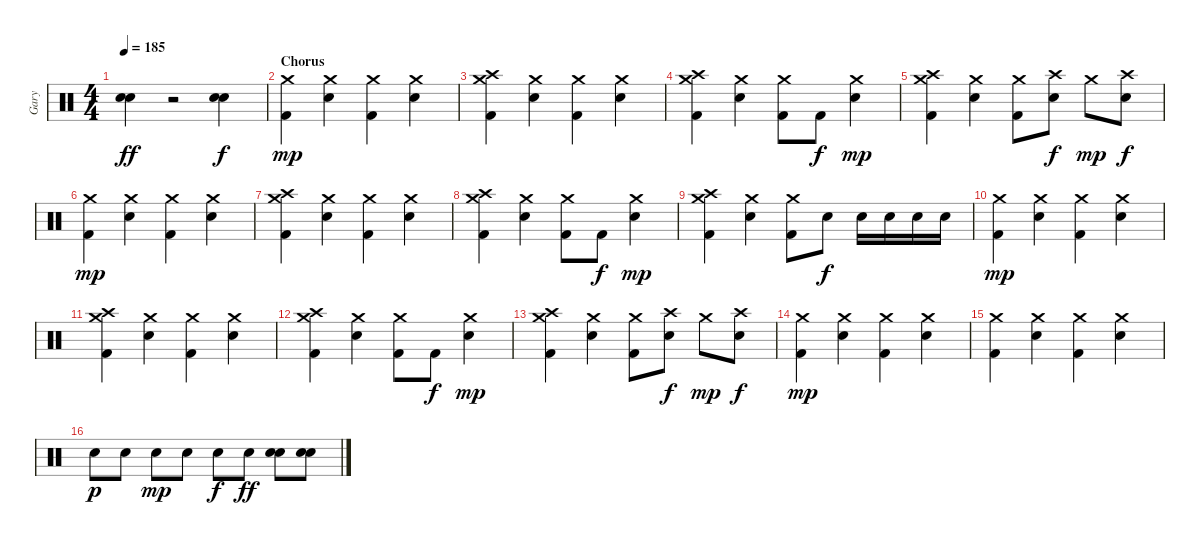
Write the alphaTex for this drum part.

\track ("Gary" "Gary") {instrument percussion}
\staff {score}
\articulation defaults
\ts (4 4)
\tempo 185
\clef neutral
\ks c
("Electric Snare (hit)" "Electric Snare (hit)").4{dy ff} r.2 ("Electric Snare (hit)" "Electric Snare (hit)").4{dy f} |
\section ("" "Chorus")
("Kick (hit) 2" "Crash medium (hit)").4{dy mp} ("Electric Snare (hit)" "Crash medium (hit)").4 ("Kick (hit) 2" "Crash medium (hit)").4 ("Electric Snare (hit)" "Crash medium (hit)").4 |
("Crash high (hit)" "Kick (hit) 2" "Crash medium (hit)").4 ("Electric Snare (hit)" "Crash medium (hit)").4 ("Kick (hit) 2" "Crash medium (hit)").4 ("Electric Snare (hit)" "Crash medium (hit)").4 |
("Crash high (hit)" "Kick (hit) 2" "Crash medium (hit)").4 ("Electric Snare (hit)" "Crash medium (hit)").4 ("Kick (hit) 2" "Crash medium (hit)").8 "Kick (hit) 2".8{dy f} ("Electric Snare (hit)" "Crash medium (hit)").4{dy mp} |
("Crash high (hit)" "Kick (hit) 2" "Crash medium (hit)").4 ("Electric Snare (hit)" "Crash medium (hit)").4 ("Kick (hit) 2" "Crash medium (hit)").8 ("Crash high (hit)" "Electric Snare (hit)").8{dy f} "Crash medium (hit)".8{dy mp} ("Crash high (hit)" "Electric Snare (hit)").8{dy f} |
("Kick (hit) 2" "Crash medium (hit)").4{dy mp} ("Electric Snare (hit)" "Crash medium (hit)").4 ("Kick (hit) 2" "Crash medium (hit)").4 ("Electric Snare (hit)" "Crash medium (hit)").4 |
("Crash high (hit)" "Kick (hit) 2" "Crash medium (hit)").4 ("Electric Snare (hit)" "Crash medium (hit)").4 ("Kick (hit) 2" "Crash medium (hit)").4 ("Electric Snare (hit)" "Crash medium (hit)").4 |
("Crash high (hit)" "Kick (hit) 2" "Crash medium (hit)").4 ("Electric Snare (hit)" "Crash medium (hit)").4 ("Kick (hit) 2" "Crash medium (hit)").8 "Kick (hit) 2".8{dy f} ("Electric Snare (hit)" "Crash medium (hit)").4{dy mp} |
("Crash high (hit)" "Kick (hit) 2" "Crash medium (hit)").4 ("Electric Snare (hit)" "Crash medium (hit)").4 ("Kick (hit) 2" "Crash medium (hit)").8 "Electric Snare (hit)".8{dy f} "Electric Snare (hit)".16 "Electric Snare (hit)".16 "Electric Snare (hit)".16 "Electric Snare (hit)".16 |
("Kick (hit) 2" "Crash medium (hit)").4{dy mp} ("Electric Snare (hit)" "Crash medium (hit)").4 ("Kick (hit) 2" "Crash medium (hit)").4 ("Electric Snare (hit)" "Crash medium (hit)").4 |
("Crash high (hit)" "Kick (hit) 2" "Crash medium (hit)").4 ("Electric Snare (hit)" "Crash medium (hit)").4 ("Kick (hit) 2" "Crash medium (hit)").4 ("Electric Snare (hit)" "Crash medium (hit)").4 |
("Crash high (hit)" "Kick (hit) 2" "Crash medium (hit)").4 ("Electric Snare (hit)" "Crash medium (hit)").4 ("Kick (hit) 2" "Crash medium (hit)").8 "Kick (hit) 2".8{dy f} ("Electric Snare (hit)" "Crash medium (hit)").4{dy mp} |
("Crash high (hit)" "Kick (hit) 2" "Crash medium (hit)").4 ("Electric Snare (hit)" "Crash medium (hit)").4 ("Kick (hit) 2" "Crash medium (hit)").8 ("Crash high (hit)" "Electric Snare (hit)").8{dy f} "Crash medium (hit)".8{dy mp} ("Crash high (hit)" "Electric Snare (hit)").8{dy f} |
("Kick (hit) 2" "Crash medium (hit)").4{dy mp} ("Electric Snare (hit)" "Crash medium (hit)").4 ("Kick (hit) 2" "Crash medium (hit)").4 ("Electric Snare (hit)" "Crash medium (hit)").4 |
("Kick (hit) 2" "Crash medium (hit)").4 ("Electric Snare (hit)" "Crash medium (hit)").4 ("Kick (hit) 2" "Crash medium (hit)").4 ("Electric Snare (hit)" "Crash medium (hit)").4 |
"Electric Snare (hit)".8{dy p} "Electric Snare (hit)".8 "Electric Snare (hit)".8{dy mp} "Electric Snare (hit)".8 "Electric Snare (hit)".8{dy f} "Electric Snare (hit)".8{dy ff} ("Electric Snare (hit)" "Electric Snare (hit)").8 ("Electric Snare (hit)" "Electric Snare (hit)").8
